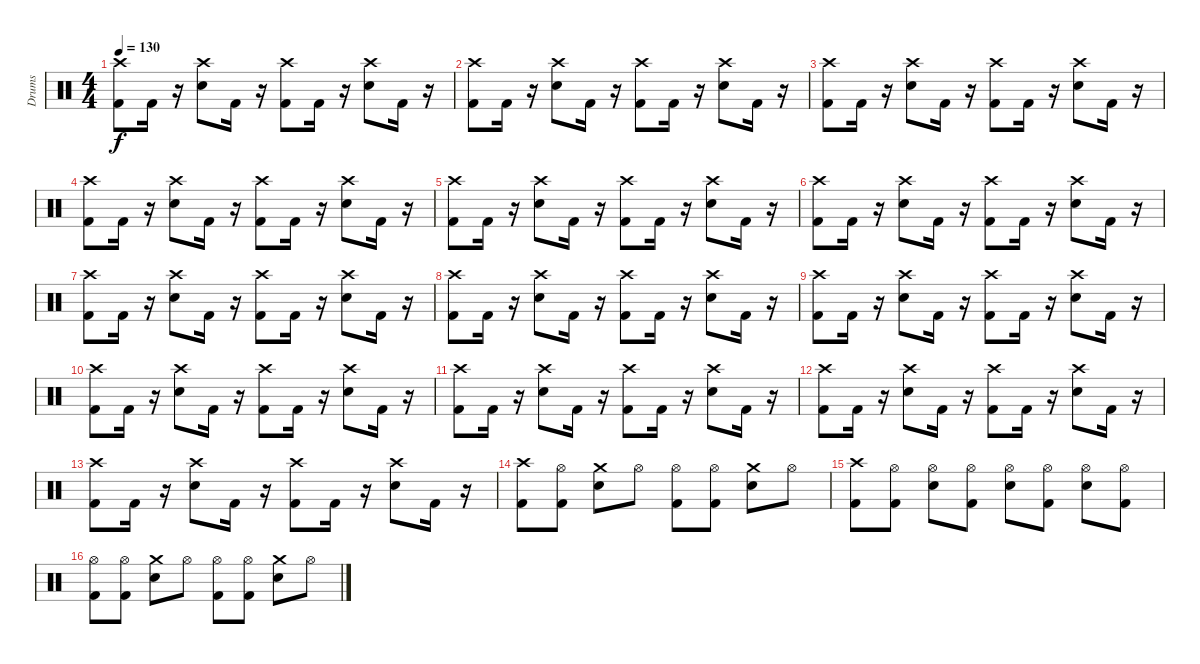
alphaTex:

\track ("Drums" "Drums") {instrument percussion}
\staff {score}
\articulation defaults
\ts (4 4)
\tempo 130
\clef neutral
\ks c
("Kick (hit) 2" "Crash high (hit)").8{dy f} "Kick (hit) 2".16 r.16 ("Electric Snare (hit)" "Crash high (hit)").8 "Kick (hit) 2".16 r.16 ("Kick (hit) 2" "Crash high (hit)").8 "Kick (hit) 2".16 r.16 ("Electric Snare (hit)" "Crash high (hit)").8 "Kick (hit) 2".16 r.16 |
("Kick (hit) 2" "Crash high (hit)").8 "Kick (hit) 2".16 r.16 ("Electric Snare (hit)" "Crash high (hit)").8 "Kick (hit) 2".16 r.16 ("Kick (hit) 2" "Crash high (hit)").8 "Kick (hit) 2".16 r.16 ("Electric Snare (hit)" "Crash high (hit)").8 "Kick (hit) 2".16 r.16 |
("Kick (hit) 2" "Crash high (hit)").8 "Kick (hit) 2".16 r.16 ("Electric Snare (hit)" "Crash high (hit)").8 "Kick (hit) 2".16 r.16 ("Kick (hit) 2" "Crash high (hit)").8 "Kick (hit) 2".16 r.16 ("Electric Snare (hit)" "Crash high (hit)").8 "Kick (hit) 2".16 r.16 |
("Kick (hit) 2" "Crash high (hit)").8 "Kick (hit) 2".16 r.16 ("Electric Snare (hit)" "Crash high (hit)").8 "Kick (hit) 2".16 r.16 ("Kick (hit) 2" "Crash high (hit)").8 "Kick (hit) 2".16 r.16 ("Electric Snare (hit)" "Crash high (hit)").8 "Kick (hit) 2".16 r.16 |
("Kick (hit) 2" "Crash high (hit)").8 "Kick (hit) 2".16 r.16 ("Electric Snare (hit)" "Crash high (hit)").8 "Kick (hit) 2".16 r.16 ("Kick (hit) 2" "Crash high (hit)").8 "Kick (hit) 2".16 r.16 ("Electric Snare (hit)" "Crash high (hit)").8 "Kick (hit) 2".16 r.16 |
("Kick (hit) 2" "Crash high (hit)").8 "Kick (hit) 2".16 r.16 ("Electric Snare (hit)" "Crash high (hit)").8 "Kick (hit) 2".16 r.16 ("Kick (hit) 2" "Crash high (hit)").8 "Kick (hit) 2".16 r.16 ("Electric Snare (hit)" "Crash high (hit)").8 "Kick (hit) 2".16 r.16 |
("Kick (hit) 2" "Crash high (hit)").8 "Kick (hit) 2".16 r.16 ("Electric Snare (hit)" "Crash high (hit)").8 "Kick (hit) 2".16 r.16 ("Kick (hit) 2" "Crash high (hit)").8 "Kick (hit) 2".16 r.16 ("Electric Snare (hit)" "Crash high (hit)").8 "Kick (hit) 2".16 r.16 |
("Kick (hit) 2" "Crash high (hit)").8 "Kick (hit) 2".16 r.16 ("Electric Snare (hit)" "Crash high (hit)").8 "Kick (hit) 2".16 r.16 ("Kick (hit) 2" "Crash high (hit)").8 "Kick (hit) 2".16 r.16 ("Electric Snare (hit)" "Crash high (hit)").8 "Kick (hit) 2".16 r.16 |
("Kick (hit) 2" "Crash high (hit)").8 "Kick (hit) 2".16 r.16 ("Electric Snare (hit)" "Crash high (hit)").8 "Kick (hit) 2".16 r.16 ("Kick (hit) 2" "Crash high (hit)").8 "Kick (hit) 2".16 r.16 ("Electric Snare (hit)" "Crash high (hit)").8 "Kick (hit) 2".16 r.16 |
("Kick (hit) 2" "Crash high (hit)").8 "Kick (hit) 2".16 r.16 ("Electric Snare (hit)" "Crash high (hit)").8 "Kick (hit) 2".16 r.16 ("Kick (hit) 2" "Crash high (hit)").8 "Kick (hit) 2".16 r.16 ("Electric Snare (hit)" "Crash high (hit)").8 "Kick (hit) 2".16 r.16 |
("Kick (hit) 2" "Crash high (hit)").8 "Kick (hit) 2".16 r.16 ("Electric Snare (hit)" "Crash high (hit)").8 "Kick (hit) 2".16 r.16 ("Kick (hit) 2" "Crash high (hit)").8 "Kick (hit) 2".16 r.16 ("Electric Snare (hit)" "Crash high (hit)").8 "Kick (hit) 2".16 r.16 |
("Kick (hit) 2" "Crash high (hit)").8 "Kick (hit) 2".16 r.16 ("Electric Snare (hit)" "Crash high (hit)").8 "Kick (hit) 2".16 r.16 ("Kick (hit) 2" "Crash high (hit)").8 "Kick (hit) 2".16 r.16 ("Electric Snare (hit)" "Crash high (hit)").8 "Kick (hit) 2".16 r.16 |
("Kick (hit) 2" "Crash high (hit)").8 "Kick (hit) 2".16 r.16 ("Electric Snare (hit)" "Crash high (hit)").8 "Kick (hit) 2".16 r.16 ("Kick (hit) 2" "Crash high (hit)").8 "Kick (hit) 2".16 r.16 ("Electric Snare (hit)" "Crash high (hit)").8 "Kick (hit) 2".16 r.16 |
("Kick (hit) 2" "Crash high (hit)").8 ("Kick (hit) 2" "Hi-Hat (open)").8 ("Electric Snare (hit)" "Crash medium (hit)").8 "Hi-Hat (open)".8 ("Kick (hit) 2" "Hi-Hat (open)").8 ("Kick (hit) 2" "Hi-Hat (open)").8 ("Electric Snare (hit)" "Crash medium (hit)").8 "Hi-Hat (open)".8 |
("Kick (hit) 2" "Crash high (hit)").8 ("Kick (hit) 2" "Hi-Hat (open)").8 ("Electric Snare (hit)" "Hi-Hat (open)").8 ("Kick (hit) 2" "Hi-Hat (open)").8 ("Hi-Hat (open)" "Electric Snare (hit)").8 ("Kick (hit) 2" "Hi-Hat (open)").8 ("Electric Snare (hit)" "Hi-Hat (open)").8 ("Hi-Hat (open)" "Kick (hit) 2").8 |
("Kick (hit) 2" "Hi-Hat (open)").8 ("Kick (hit) 2" "Hi-Hat (open)").8 ("Electric Snare (hit)" "Crash medium (hit)").8 "Hi-Hat (open)".8 ("Kick (hit) 2" "Hi-Hat (open)").8 ("Kick (hit) 2" "Hi-Hat (open)").8 ("Electric Snare (hit)" "Crash medium (hit)").8 "Hi-Hat (open)".8
